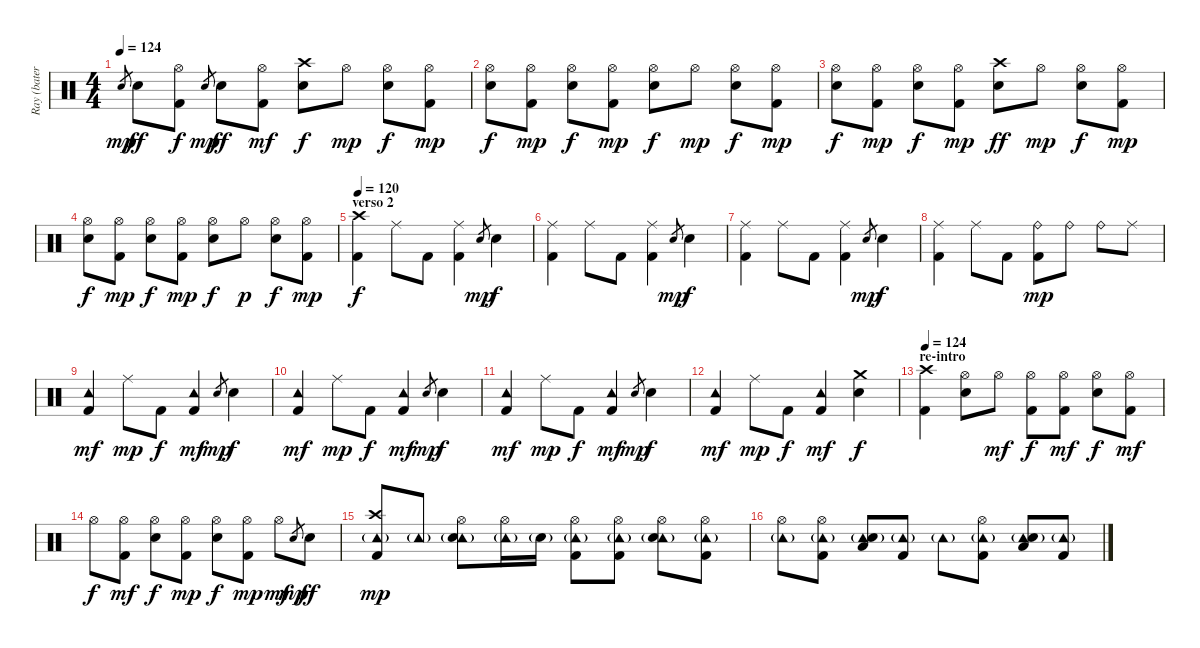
\track ("Ray (batería)" "Ray (bater") {instrument percussion}
\staff {score}
\articulation defaults
\ts (4 4)
\tempo 124
\clef neutral
\ks c "Snare (hit) 2".8{gr dy mp} "Snare (hit) 2".8{dy ff}
("Hi-Hat (open)" "Kick (hit) 2").8{dy f} "Snare (hit) 2".8{gr dy mp} "Snare (hit) 2".8{dy ff} ("Hi-Hat (open)" "Kick (hit) 2").8{dy mf} ("Crash high (hit)" "Snare (hit) 2").8{dy f} "Hi-Hat (open)".8{dy mp} ("Hi-Hat (open)" "Snare (hit) 2").8{dy f} ("Hi-Hat (open)" "Kick (hit) 2").8{dy mp} |
("Hi-Hat (open)" "Snare (hit) 2").8{dy f} ("Hi-Hat (open)" "Kick (hit) 2").8{dy mp} ("Hi-Hat (open)" "Snare (hit) 2").8{dy f} ("Hi-Hat (open)" "Kick (hit) 2").8{dy mp} ("Hi-Hat (open)" "Snare (hit) 2").8{dy f} "Hi-Hat (open)".8{dy mp} ("Hi-Hat (open)" "Snare (hit) 2").8{dy f} ("Hi-Hat (open)" "Kick (hit) 2").8{dy mp} |
("Hi-Hat (open)" "Snare (hit) 2").8{dy f} ("Hi-Hat (open)" "Kick (hit) 2").8{dy mp} ("Hi-Hat (open)" "Snare (hit) 2").8{dy f} ("Hi-Hat (open)" "Kick (hit) 2").8{dy mp} ("Crash high (hit)" "Snare (hit) 2").8{dy ff} "Hi-Hat (open)".8{dy mp} ("Hi-Hat (open)" "Snare (hit) 2").8{dy f} ("Hi-Hat (open)" "Kick (hit) 2").8{dy mp} |
("Hi-Hat (open)" "Snare (hit) 2").8{dy f} ("Hi-Hat (open)" "Kick (hit) 2").8{dy mp} ("Hi-Hat (open)" "Snare (hit) 2").8{dy f} ("Hi-Hat (open)" "Kick (hit) 2").8{dy mp} ("Hi-Hat (open)" "Snare (hit) 2").8{dy f} "Hi-Hat (open)".8{dy p} ("Hi-Hat (open)" "Snare (hit) 2").8{dy f} ("Hi-Hat (open)" "Kick (hit) 2").8{dy mp} |
\section ("" "verso 2")
\tempo 120
("Crash high (hit)" "Kick (hit) 2").4{dy f} "Ride (middle)".8 "Kick (hit) 2".8 ("Ride (middle)" "Kick (hit) 2").4 "Snare (hit) 2".8{gr dy mp} "Snare (hit) 2".4{dy f} |
("Ride (middle)" "Kick (hit) 2").4 "Ride (middle)".8 "Kick (hit) 2".8 ("Ride (middle)" "Kick (hit) 2").4 "Snare (hit) 2".8{gr dy mp} "Snare (hit) 2".4{dy f} |
("Ride (middle)" "Kick (hit) 2").4 "Ride (middle)".8 "Kick (hit) 2".8 ("Ride (middle)" "Kick (hit) 2").4 "Snare (hit) 2".8{gr dy mp} "Snare (hit) 2".4{dy f} |
("Ride (middle)" "Kick (hit) 2").4 "Ride (middle)".8 "Kick (hit) 2".8 ("Ride (bell)" "Kick (hit) 2").8{dy mp} "Ride (bell)".8 "Ride (bell)".8 "Ride (middle)".8 |
("Tambourine (hit)" "Kick (hit) 2").4{dy mf} "Ride (middle)".8{dy mp} "Kick (hit) 2".8{dy f} ("Tambourine (hit)" "Kick (hit) 2").4{dy mf} "Snare (hit) 2".8{gr dy mp} "Snare (hit) 2".4{dy f} |
("Tambourine (hit)" "Kick (hit) 2").4{dy mf} "Ride (middle)".8{dy mp} "Kick (hit) 2".8{dy f} ("Tambourine (hit)" "Kick (hit) 2").4{dy mf} "Snare (hit) 2".8{gr dy mp} "Snare (hit) 2".4{dy f} |
("Tambourine (hit)" "Kick (hit) 2").4{dy mf} "Ride (middle)".8{dy mp} "Kick (hit) 2".8{dy f} ("Tambourine (hit)" "Kick (hit) 2").4{dy mf} "Snare (hit) 2".8{gr dy mp} "Snare (hit) 2".4{dy f} |
("Tambourine (hit)" "Kick (hit) 2").4{dy mf} "Ride (middle)".8{dy mp} "Kick (hit) 2".8{dy f} ("Tambourine (hit)" "Kick (hit) 2").4{dy mf} ("Crash medium (hit)" "Snare (hit) 2").4{dy f} |
\section ("" "re-intro")
\tempo 124
("Crash high (hit)" "Kick (hit) 2").4 ("Hi-Hat (open)" "Snare (hit) 2").8 "Hi-Hat (open)".8{dy mf} ("Hi-Hat (open)" "Kick (hit) 2").8{dy f} ("Hi-Hat (open)" "Kick (hit) 2").8{dy mf} ("Hi-Hat (open)" "Snare (hit) 2").8{dy f} ("Hi-Hat (open)" "Kick (hit) 2").8{dy mf} |
"Hi-Hat (open)".8{dy f} ("Hi-Hat (open)" "Kick (hit) 2").8{dy mf} ("Hi-Hat (open)" "Snare (hit) 2").8{dy f} ("Hi-Hat (open)" "Kick (hit) 2").8{dy mp} ("Hi-Hat (open)" "Snare (hit) 2").8{dy f} ("Hi-Hat (open)" "Kick (hit) 2").8{dy mp} "Hi-Hat (open)".8{dy mf} "Snare (hit) 2".8{gr dy mp} "Snare (hit) 2".8{dy ff} |
("Crash high (hit)" "Tambourine (hit)"{g} "Kick (hit) 2").8{dy mp} "Tambourine (hit)"{g}.8 ("Hi-Hat (open)" "Tambourine (hit)"{g} "Snare (hit) 2").8 ("Hi-Hat (open)" "Tambourine (hit)"{g}).16 "Snare (hit) 2"{g}.16 ("Hi-Hat (open)" "Tambourine (hit)"{g} "Kick (hit) 2").8 ("Hi-Hat (open)" "Tambourine (hit)"{g} "Kick (hit) 2").8 ("Hi-Hat (open)" "Tambourine (hit)"{g} "Snare (hit) 2").8 ("Hi-Hat (open)" "Tambourine (hit)"{g} "Kick (hit) 2").8 |
("Hi-Hat (open)" "Tambourine (hit)"{g}).8 ("Hi-Hat (open)" "Tambourine (hit)"{g} "Kick (hit) 2").8 ("Tambourine (hit)"{g} "Snare (hit) 2" "Low Tom (hit)").8 ("Tambourine (hit)"{g} "Kick (hit) 2").8 "Tambourine (hit)"{g}.8 ("Hi-Hat (open)" "Tambourine (hit)"{g} "Kick (hit) 2").8 ("Tambourine (hit)"{g} "Snare (hit) 2" "Low Tom (hit)").8 ("Tambourine (hit)"{g} "Kick (hit) 2").8
